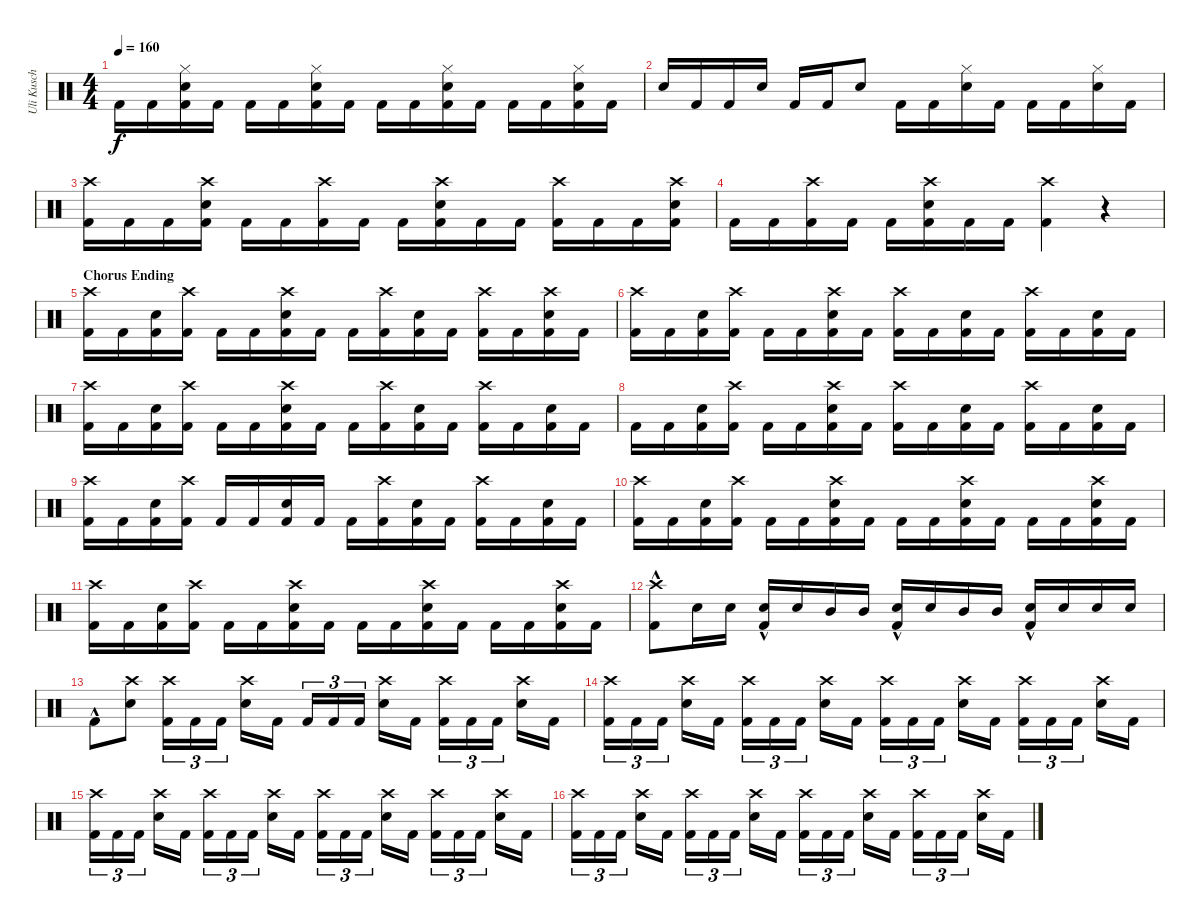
\track ("Uli Kusch" "Uli Kusch") {instrument percussion}
\staff {score}
\articulation defaults
\ts (4 4)
\tempo 160
\clef neutral
\ks c "Kick (hit) 2".16{dy f} "Kick (hit) 2".16
("Kick (hit) 2" "Snare (hit) 2" "Hi-Hat (closed)").16 "Kick (hit) 2".16 "Kick (hit) 2".16 "Kick (hit) 2".16 ("Kick (hit) 2" "Hi-Hat (closed)" "Snare (hit) 2").16 "Kick (hit) 2".16 "Kick (hit) 2".16 "Kick (hit) 2".16 ("Kick (hit) 2" "Snare (hit) 2" "Hi-Hat (closed)").16 "Kick (hit) 2".16 "Kick (hit) 2".16 "Kick (hit) 2".16 ("Kick (hit) 2" "Hi-Hat (closed)" "Snare (hit) 2").16 "Kick (hit) 2".16 |
"Snare (hit) 2".16 "Kick (hit) 2".16 "Kick (hit) 2".16 "Snare (hit) 2".16 "Kick (hit) 2".16 "Kick (hit) 2".16 "Snare (hit) 2".8 "Kick (hit) 2".16 "Kick (hit) 2".16 ("Snare (hit) 2" "Hi-Hat (closed)").16 "Kick (hit) 2".16 "Kick (hit) 2".16 "Kick (hit) 2".16 ("Snare (hit) 2" "Hi-Hat (closed)").16 "Kick (hit) 2".16 |
("Kick (hit) 2" "Crash high (hit)").16 "Kick (hit) 2".16 "Kick (hit) 2".16 ("Kick (hit) 2" "Crash high (hit)" "Snare (hit) 2").16 "Kick (hit) 2".16 "Kick (hit) 2".16 ("Kick (hit) 2" "Crash high (hit)").16 "Kick (hit) 2".16 "Kick (hit) 2".16 ("Kick (hit) 2" "Crash high (hit)" "Snare (hit) 2").16 "Kick (hit) 2".16 "Kick (hit) 2".16 ("Kick (hit) 2" "Crash high (hit)").16 "Kick (hit) 2".16 "Kick (hit) 2".16 ("Kick (hit) 2" "Crash high (hit)" "Snare (hit) 2").16 |
"Kick (hit) 2".16 "Kick (hit) 2".16 ("Kick (hit) 2" "Crash high (hit)").16 "Kick (hit) 2".16 "Kick (hit) 2".16 ("Kick (hit) 2" "Crash high (hit)" "Snare (hit) 2").16 "Kick (hit) 2".16 "Kick (hit) 2".16 ("Kick (hit) 2" "Crash high (hit)").4 r.4 |
\section ("" "Chorus Ending")
("Kick (hit) 2" "Crash high (hit)").16 "Kick (hit) 2".16 ("Kick (hit) 2" "Snare (hit) 2").16 ("Kick (hit) 2" "Crash high (hit)").16 "Kick (hit) 2".16 "Kick (hit) 2".16 ("Kick (hit) 2" "Snare (hit) 2" "Crash high (hit)").16 "Kick (hit) 2".16 "Kick (hit) 2".16 ("Kick (hit) 2" "Crash high (hit)").16 ("Kick (hit) 2" "Snare (hit) 2").16 "Kick (hit) 2".16 ("Kick (hit) 2" "Crash high (hit)").16 "Kick (hit) 2".16 ("Kick (hit) 2" "Crash high (hit)" "Snare (hit) 2").16 "Kick (hit) 2".16 |
("Kick (hit) 2" "Crash high (hit)").16 "Kick (hit) 2".16 ("Kick (hit) 2" "Snare (hit) 2").16 ("Kick (hit) 2" "Crash high (hit)").16 "Kick (hit) 2".16 "Kick (hit) 2".16 ("Kick (hit) 2" "Snare (hit) 2" "Crash high (hit)").16 "Kick (hit) 2".16 ("Kick (hit) 2" "Crash high (hit)").16 "Kick (hit) 2".16 ("Kick (hit) 2" "Snare (hit) 2").16 "Kick (hit) 2".16 ("Kick (hit) 2" "Crash high (hit)").16 "Kick (hit) 2".16 ("Kick (hit) 2" "Snare (hit) 2").16 "Kick (hit) 2".16 |
("Kick (hit) 2" "Crash high (hit)").16 "Kick (hit) 2".16 ("Kick (hit) 2" "Snare (hit) 2").16 ("Kick (hit) 2" "Crash high (hit)").16 "Kick (hit) 2".16 "Kick (hit) 2".16 ("Kick (hit) 2" "Snare (hit) 2" "Crash high (hit)").16 "Kick (hit) 2".16 "Kick (hit) 2".16 ("Kick (hit) 2" "Crash high (hit)").16 ("Kick (hit) 2" "Snare (hit) 2").16 "Kick (hit) 2".16 ("Kick (hit) 2" "Crash high (hit)").16 "Kick (hit) 2".16 ("Kick (hit) 2" "Snare (hit) 2").16 "Kick (hit) 2".16 |
"Kick (hit) 2".16 "Kick (hit) 2".16 ("Kick (hit) 2" "Snare (hit) 2").16 ("Kick (hit) 2" "Crash high (hit)").16 "Kick (hit) 2".16 "Kick (hit) 2".16 ("Kick (hit) 2" "Snare (hit) 2" "Crash high (hit)").16 "Kick (hit) 2".16 ("Kick (hit) 2" "Crash high (hit)").16 "Kick (hit) 2".16 ("Kick (hit) 2" "Snare (hit) 2").16 "Kick (hit) 2".16 ("Kick (hit) 2" "Crash high (hit)").16 "Kick (hit) 2".16 ("Kick (hit) 2" "Snare (hit) 2").16 "Kick (hit) 2".16 |
("Kick (hit) 2" "Crash high (hit)").16 "Kick (hit) 2".16 ("Kick (hit) 2" "Snare (hit) 2").16 ("Kick (hit) 2" "Crash high (hit)").16 "Kick (hit) 2".16 "Kick (hit) 2".16 ("Kick (hit) 2" "Snare (hit) 2").16 "Kick (hit) 2".16 "Kick (hit) 2".16 ("Kick (hit) 2" "Crash high (hit)").16 ("Kick (hit) 2" "Snare (hit) 2").16 "Kick (hit) 2".16 ("Kick (hit) 2" "Crash high (hit)").16 "Kick (hit) 2".16 ("Kick (hit) 2" "Snare (hit) 2").16 "Kick (hit) 2".16 |
("Kick (hit) 2" "Crash high (hit)").16 "Kick (hit) 2".16 ("Kick (hit) 2" "Snare (hit) 2").16 ("Kick (hit) 2" "Crash high (hit)").16 "Kick (hit) 2".16 "Kick (hit) 2".16 ("Kick (hit) 2" "Snare (hit) 2" "Crash high (hit)").16 "Kick (hit) 2".16 "Kick (hit) 2".16 "Kick (hit) 2".16 ("Kick (hit) 2" "Snare (hit) 2" "Crash high (hit)").16 "Kick (hit) 2".16 "Kick (hit) 2".16 "Kick (hit) 2".16 ("Kick (hit) 2" "Crash high (hit)" "Snare (hit) 2").16 "Kick (hit) 2".16 |
("Kick (hit) 2" "Crash high (hit)").16 "Kick (hit) 2".16 ("Kick (hit) 2" "Snare (hit) 2").16 ("Kick (hit) 2" "Crash high (hit)").16 "Kick (hit) 2".16 "Kick (hit) 2".16 ("Kick (hit) 2" "Snare (hit) 2" "Crash high (hit)").16 "Kick (hit) 2".16 "Kick (hit) 2".16 "Kick (hit) 2".16 ("Kick (hit) 2" "Snare (hit) 2" "Crash high (hit)").16 "Kick (hit) 2".16 "Kick (hit) 2".16 "Kick (hit) 2".16 ("Kick (hit) 2" "Crash high (hit)" "Snare (hit) 2").16 "Kick (hit) 2".16 |
("Kick (hit) 2"{hac} "Crash high (hit)").8 "Snare (hit) 2".16 "Snare (hit) 2".16 ("Kick (hit) 2"{hac} "Snare (hit) 2").16 "Snare (hit) 2".16 "Mid Tom (hit)".16 "Mid Tom (hit)".16 ("Kick (hit) 2"{hac} "Snare (hit) 2").16 "Snare (hit) 2".16 "Mid Tom (hit)".16 "Mid Tom (hit)".16 ("Kick (hit) 2"{hac} "Snare (hit) 2").16 "Snare (hit) 2".16 "Snare (hit) 2".16 "Snare (hit) 2".16 |
"Kick (hit) 2"{hac}.8 ("Snare (hit) 2" "Crash high (hit)").8 ("Crash high (hit)" "Kick (hit) 2").16{tu (3 2)} "Kick (hit) 2".16{tu (3 2)} "Kick (hit) 2".16{tu (3 2)} ("Crash high (hit)" "Snare (hit) 2").16 "Kick (hit) 2".16 "Kick (hit) 2".16{tu (3 2)} "Kick (hit) 2".16{tu (3 2)} "Kick (hit) 2".16{tu (3 2)} ("Crash high (hit)" "Snare (hit) 2").16 "Kick (hit) 2".16 ("Crash high (hit)" "Kick (hit) 2").16{tu (3 2)} "Kick (hit) 2".16{tu (3 2)} "Kick (hit) 2".16{tu (3 2)} ("Crash high (hit)" "Snare (hit) 2").16 "Kick (hit) 2".16 |
("Kick (hit) 2" "Crash high (hit)").16{tu (3 2)} "Kick (hit) 2".16{tu (3 2)} "Kick (hit) 2".16{tu (3 2)} ("Crash high (hit)" "Snare (hit) 2").16 "Kick (hit) 2".16 ("Kick (hit) 2" "Crash high (hit)").16{tu (3 2)} "Kick (hit) 2".16{tu (3 2)} "Kick (hit) 2".16{tu (3 2)} ("Crash high (hit)" "Snare (hit) 2").16 "Kick (hit) 2".16 ("Kick (hit) 2" "Crash high (hit)").16{tu (3 2)} "Kick (hit) 2".16{tu (3 2)} "Kick (hit) 2".16{tu (3 2)} ("Crash high (hit)" "Snare (hit) 2").16 "Kick (hit) 2".16 ("Kick (hit) 2" "Crash high (hit)").16{tu (3 2)} "Kick (hit) 2".16{tu (3 2)} "Kick (hit) 2".16{tu (3 2)} ("Crash high (hit)" "Snare (hit) 2").16 "Kick (hit) 2".16 |
("Kick (hit) 2" "Crash high (hit)").16{tu (3 2)} "Kick (hit) 2".16{tu (3 2)} "Kick (hit) 2".16{tu (3 2)} ("Crash high (hit)" "Snare (hit) 2").16 "Kick (hit) 2".16 ("Kick (hit) 2" "Crash high (hit)").16{tu (3 2)} "Kick (hit) 2".16{tu (3 2)} "Kick (hit) 2".16{tu (3 2)} ("Crash high (hit)" "Snare (hit) 2").16 "Kick (hit) 2".16 ("Kick (hit) 2" "Crash high (hit)").16{tu (3 2)} "Kick (hit) 2".16{tu (3 2)} "Kick (hit) 2".16{tu (3 2)} ("Crash high (hit)" "Snare (hit) 2").16 "Kick (hit) 2".16 ("Kick (hit) 2" "Crash high (hit)").16{tu (3 2)} "Kick (hit) 2".16{tu (3 2)} "Kick (hit) 2".16{tu (3 2)} ("Crash high (hit)" "Snare (hit) 2").16 "Kick (hit) 2".16 |
("Kick (hit) 2" "Crash high (hit)").16{tu (3 2)} "Kick (hit) 2".16{tu (3 2)} "Kick (hit) 2".16{tu (3 2)} ("Crash high (hit)" "Snare (hit) 2").16 "Kick (hit) 2".16 ("Kick (hit) 2" "Crash high (hit)").16{tu (3 2)} "Kick (hit) 2".16{tu (3 2)} "Kick (hit) 2".16{tu (3 2)} ("Crash high (hit)" "Snare (hit) 2").16 "Kick (hit) 2".16 ("Kick (hit) 2" "Crash high (hit)").16{tu (3 2)} "Kick (hit) 2".16{tu (3 2)} "Kick (hit) 2".16{tu (3 2)} ("Crash high (hit)" "Snare (hit) 2").16 "Kick (hit) 2".16 ("Kick (hit) 2" "Crash high (hit)").16{tu (3 2)} "Kick (hit) 2".16{tu (3 2)} "Kick (hit) 2".16{tu (3 2)} ("Crash high (hit)" "Snare (hit) 2").16 "Kick (hit) 2".16
